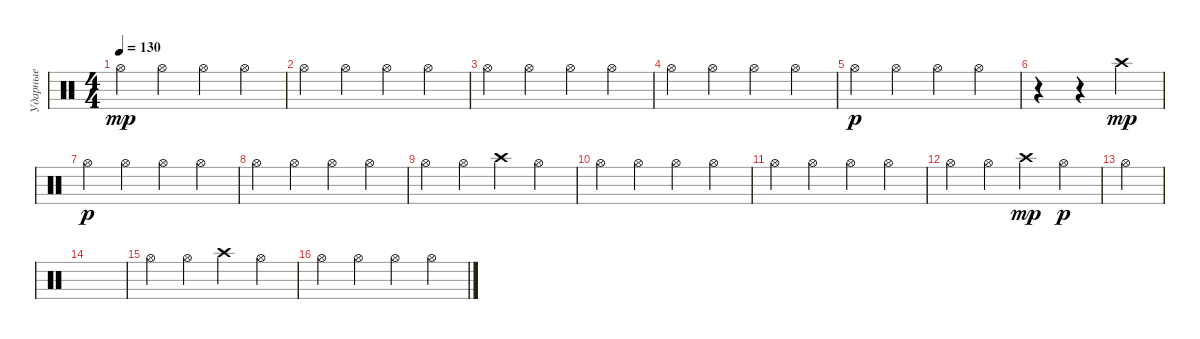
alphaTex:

\track ("Ударные" "Ударные") {instrument percussion}
\staff {score}
\articulation defaults
\ts (4 4)
\tempo 130
\clef neutral
\ks c "Hi-Hat (open)".4{dy mp} "Hi-Hat (open)".4 "Hi-Hat (open)".4 "Hi-Hat (open)".4
|
"Hi-Hat (open)".4 "Hi-Hat (open)".4 "Hi-Hat (open)".4 "Hi-Hat (open)".4 |
"Hi-Hat (open)".4 "Hi-Hat (open)".4 "Hi-Hat (open)".4 "Hi-Hat (open)".4 |
"Hi-Hat (open)".4 "Hi-Hat (open)".4 "Hi-Hat (open)".4 "Hi-Hat (open)".4 |
"Hi-Hat (open)".4{dy p} "Hi-Hat (open)".4 "Hi-Hat (open)".4 "Hi-Hat (open)".4 |
r.4 r.4 "Crash high (hit)".4{dy mp} |
"Hi-Hat (open)".4{dy p} "Hi-Hat (open)".4 "Hi-Hat (open)".4 "Hi-Hat (open)".4 |
"Hi-Hat (open)".4 "Hi-Hat (open)".4 "Hi-Hat (open)".4 "Hi-Hat (open)".4 |
"Hi-Hat (open)".4 "Hi-Hat (open)".4 "Crash high (hit)".4 "Hi-Hat (open)".4 |
"Hi-Hat (open)".4 "Hi-Hat (open)".4 "Hi-Hat (open)".4 "Hi-Hat (open)".4 |
"Hi-Hat (open)".4 "Hi-Hat (open)".4 "Hi-Hat (open)".4 "Hi-Hat (open)".4 |
"Hi-Hat (open)".4 "Hi-Hat (open)".4 "Crash high (hit)".4{dy mp} "Hi-Hat (open)".4{dy p} |
"Hi-Hat (open)".4 |
|
"Hi-Hat (open)".4 "Hi-Hat (open)".4 "Crash high (hit)".4 "Hi-Hat (open)".4 |
"Hi-Hat (open)".4 "Hi-Hat (open)".4 "Hi-Hat (open)".4 "Hi-Hat (open)".4
